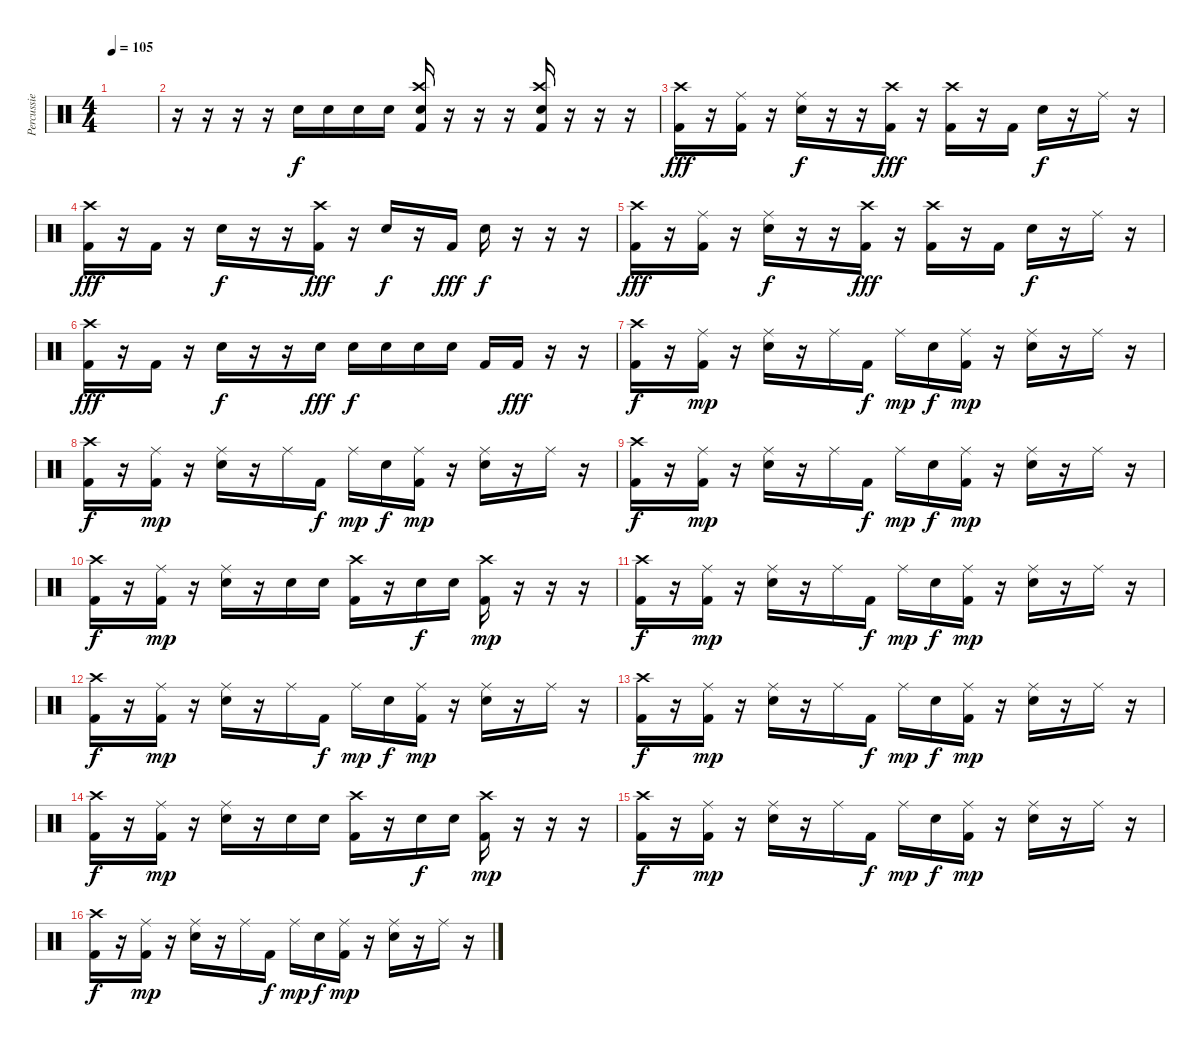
\track ("Percussie" "Percussie") {instrument percussion}
\staff {score}
\articulation defaults
\ts (4 4)
\tempo 105
\clef neutral
\ks c
|
r.16 r.16 r.16 r.16 "Electric Snare (hit)".16 "Electric Snare (hit)".16 "Electric Snare (hit)".16 "Electric Snare (hit)".16 ("Crash high (hit)" "Electric Snare (hit)" "Kick (hit) 2").16 r.16 r.16 r.16 ("Crash high (hit)" "Electric Snare (hit)" "Kick (hit) 2").16 r.16 r.16 r.16 |
("Crash high (hit)" "Kick (hit) 2").16{dy fff} r.16 ("Ride (middle)" "Kick (hit) 2").16 r.16 ("Ride (middle)" "Electric Snare (hit)").16{dy f} r.16 r.16 ("Crash high (hit)" "Kick (hit) 2").16{dy fff} r.16 ("Crash high (hit)" "Kick (hit) 2").16 r.16 "Kick (hit) 2".16 "Electric Snare (hit)".16{dy f} r.16 "Ride (middle)".16 r.16 |
("Crash high (hit)" "Kick (hit) 2").16{dy fff} r.16 "Kick (hit) 2".16 r.16 "Electric Snare (hit)".16{dy f} r.16 r.16 ("Crash high (hit)" "Kick (hit) 2").16{dy fff} r.16 "Electric Snare (hit)".16{dy f} r.16 "Kick (hit) 2".16{dy fff} "Electric Snare (hit)".16{dy f} r.16 r.16 r.16 |
("Crash high (hit)" "Kick (hit) 2").16{dy fff} r.16 ("Ride (middle)" "Kick (hit) 2").16 r.16 ("Ride (middle)" "Electric Snare (hit)").16{dy f} r.16 r.16 ("Crash high (hit)" "Kick (hit) 2").16{dy fff} r.16 ("Crash high (hit)" "Kick (hit) 2").16 r.16 "Kick (hit) 2".16 "Electric Snare (hit)".16{dy f} r.16 "Ride (middle)".16 r.16 |
("Crash high (hit)" "Kick (hit) 2").16{dy fff} r.16 "Kick (hit) 2".16 r.16 "Electric Snare (hit)".16{dy f} r.16 r.16 "Electric Snare (hit)".16{dy fff} "Electric Snare (hit)".16{dy f} "Electric Snare (hit)".16 "Electric Snare (hit)".16 "Electric Snare (hit)".16 "Kick (hit) 2".16 "Kick (hit) 2".16{dy fff} r.16 r.16 |
("Crash high (hit)" "Kick (hit) 2").16{dy f} r.16 ("Ride (middle)" "Kick (hit) 2").16{dy mp} r.16 ("Ride (middle)" "Electric Snare (hit)").16 r.16 "Ride (middle)".16 "Kick (hit) 2".16{dy f} "Ride (middle)".16{dy mp} "Electric Snare (hit)".16{dy f} ("Ride (middle)" "Kick (hit) 2").16{dy mp} r.16 ("Ride (middle)" "Electric Snare (hit)").16 r.16 "Ride (middle)".16 r.16 |
("Crash high (hit)" "Kick (hit) 2").16{dy f} r.16 ("Ride (middle)" "Kick (hit) 2").16{dy mp} r.16 ("Ride (middle)" "Electric Snare (hit)").16 r.16 "Ride (middle)".16 "Kick (hit) 2".16{dy f} "Ride (middle)".16{dy mp} "Electric Snare (hit)".16{dy f} ("Ride (middle)" "Kick (hit) 2").16{dy mp} r.16 ("Ride (middle)" "Electric Snare (hit)").16 r.16 "Ride (middle)".16 r.16 |
("Crash high (hit)" "Kick (hit) 2").16{dy f} r.16 ("Ride (middle)" "Kick (hit) 2").16{dy mp} r.16 ("Ride (middle)" "Electric Snare (hit)").16 r.16 "Ride (middle)".16 "Kick (hit) 2".16{dy f} "Ride (middle)".16{dy mp} "Electric Snare (hit)".16{dy f} ("Ride (middle)" "Kick (hit) 2").16{dy mp} r.16 ("Ride (middle)" "Electric Snare (hit)").16 r.16 "Ride (middle)".16 r.16 |
("Crash high (hit)" "Kick (hit) 2").16{dy f} r.16 ("Ride (middle)" "Kick (hit) 2").16{dy mp} r.16 ("Ride (middle)" "Electric Snare (hit)").16 r.16 "Electric Snare (hit)".16 "Electric Snare (hit)".16 ("Crash high (hit)" "Kick (hit) 2").16 r.16 "Electric Snare (hit)".16{dy f} "Electric Snare (hit)".16 ("Crash high (hit)" "Kick (hit) 2").16{dy mp} r.16 r.16 r.16 |
("Crash high (hit)" "Kick (hit) 2").16{dy f} r.16 ("Ride (middle)" "Kick (hit) 2").16{dy mp} r.16 ("Ride (middle)" "Electric Snare (hit)").16 r.16 "Ride (middle)".16 "Kick (hit) 2".16{dy f} "Ride (middle)".16{dy mp} "Electric Snare (hit)".16{dy f} ("Ride (middle)" "Kick (hit) 2").16{dy mp} r.16 ("Ride (middle)" "Electric Snare (hit)").16 r.16 "Ride (middle)".16 r.16 |
("Crash high (hit)" "Kick (hit) 2").16{dy f} r.16 ("Ride (middle)" "Kick (hit) 2").16{dy mp} r.16 ("Ride (middle)" "Electric Snare (hit)").16 r.16 "Ride (middle)".16 "Kick (hit) 2".16{dy f} "Ride (middle)".16{dy mp} "Electric Snare (hit)".16{dy f} ("Ride (middle)" "Kick (hit) 2").16{dy mp} r.16 ("Ride (middle)" "Electric Snare (hit)").16 r.16 "Ride (middle)".16 r.16 |
("Crash high (hit)" "Kick (hit) 2").16{dy f} r.16 ("Ride (middle)" "Kick (hit) 2").16{dy mp} r.16 ("Ride (middle)" "Electric Snare (hit)").16 r.16 "Ride (middle)".16 "Kick (hit) 2".16{dy f} "Ride (middle)".16{dy mp} "Electric Snare (hit)".16{dy f} ("Ride (middle)" "Kick (hit) 2").16{dy mp} r.16 ("Ride (middle)" "Electric Snare (hit)").16 r.16 "Ride (middle)".16 r.16 |
("Crash high (hit)" "Kick (hit) 2").16{dy f} r.16 ("Ride (middle)" "Kick (hit) 2").16{dy mp} r.16 ("Ride (middle)" "Electric Snare (hit)").16 r.16 "Electric Snare (hit)".16 "Electric Snare (hit)".16 ("Crash high (hit)" "Kick (hit) 2").16 r.16 "Electric Snare (hit)".16{dy f} "Electric Snare (hit)".16 ("Crash high (hit)" "Kick (hit) 2").16{dy mp} r.16 r.16 r.16 |
("Crash high (hit)" "Kick (hit) 2").16{dy f} r.16 ("Ride (middle)" "Kick (hit) 2").16{dy mp} r.16 ("Ride (middle)" "Electric Snare (hit)").16 r.16 "Ride (middle)".16 "Kick (hit) 2".16{dy f} "Ride (middle)".16{dy mp} "Electric Snare (hit)".16{dy f} ("Ride (middle)" "Kick (hit) 2").16{dy mp} r.16 ("Ride (middle)" "Electric Snare (hit)").16 r.16 "Ride (middle)".16 r.16 |
("Crash high (hit)" "Kick (hit) 2").16{dy f} r.16 ("Ride (middle)" "Kick (hit) 2").16{dy mp} r.16 ("Ride (middle)" "Electric Snare (hit)").16 r.16 "Ride (middle)".16 "Kick (hit) 2".16{dy f} "Ride (middle)".16{dy mp} "Electric Snare (hit)".16{dy f} ("Ride (middle)" "Kick (hit) 2").16{dy mp} r.16 ("Ride (middle)" "Electric Snare (hit)").16 r.16 "Ride (middle)".16 r.16
